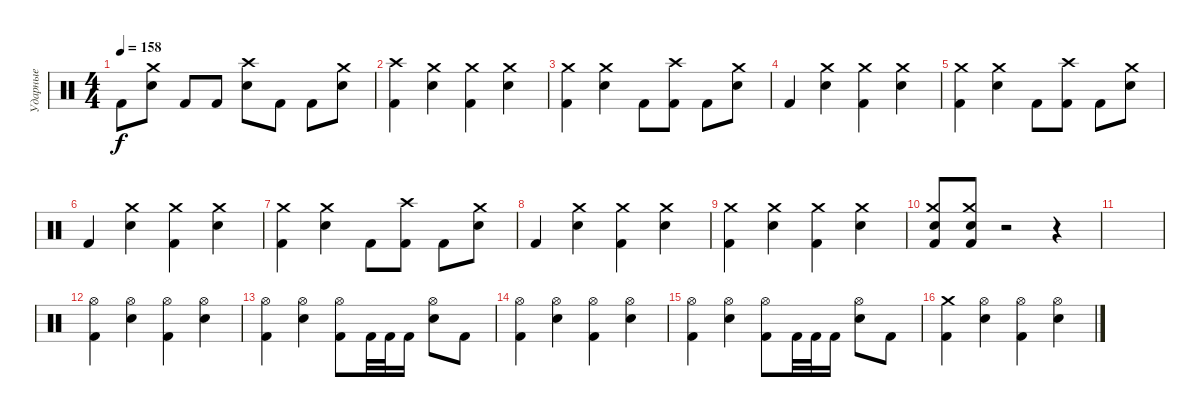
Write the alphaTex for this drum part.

\track ("Ударные" "Ударные") {instrument percussion}
\staff {score}
\articulation defaults
\ts (4 4)
\tempo 158
\clef neutral
\ks c "Kick (hit) 2".8{dy f}
("Crash medium (hit)" "Snare (hit) 2").8 "Kick (hit) 2".8 "Kick (hit) 2".8 ("Crash high (hit)" "Snare (hit) 2").8 "Kick (hit) 2".8 "Kick (hit) 2".8 ("Crash medium (hit)" "Snare (hit) 2").8 |
("Crash high (hit)" "Kick (hit) 2").4 ("Crash medium (hit)" "Snare (hit) 2").4 ("Crash medium (hit)" "Kick (hit) 2").4 ("Crash medium (hit)" "Snare (hit) 2").4 |
("Crash medium (hit)" "Kick (hit) 2").4 ("Crash medium (hit)" "Snare (hit) 2").4 "Kick (hit) 2".8 ("Crash high (hit)" "Kick (hit) 2").8 "Kick (hit) 2".8 ("Crash medium (hit)" "Snare (hit) 2").8 |
"Kick (hit) 2".4 ("Crash medium (hit)" "Snare (hit) 2").4 ("Crash medium (hit)" "Kick (hit) 2").4 ("Crash medium (hit)" "Snare (hit) 2").4 |
("Crash medium (hit)" "Kick (hit) 2").4 ("Crash medium (hit)" "Snare (hit) 2").4 "Kick (hit) 2".8 ("Crash high (hit)" "Kick (hit) 2").8 "Kick (hit) 2".8 ("Crash medium (hit)" "Snare (hit) 2").8 |
"Kick (hit) 2".4 ("Crash medium (hit)" "Snare (hit) 2").4 ("Crash medium (hit)" "Kick (hit) 2").4 ("Crash medium (hit)" "Snare (hit) 2").4 |
("Crash medium (hit)" "Kick (hit) 2").4 ("Crash medium (hit)" "Snare (hit) 2").4 "Kick (hit) 2".8 ("Crash high (hit)" "Kick (hit) 2").8 "Kick (hit) 2".8 ("Crash medium (hit)" "Snare (hit) 2").8 |
"Kick (hit) 2".4 ("Crash medium (hit)" "Snare (hit) 2").4 ("Crash medium (hit)" "Kick (hit) 2").4 ("Crash medium (hit)" "Snare (hit) 2").4 |
("Crash medium (hit)" "Kick (hit) 2").4 ("Crash medium (hit)" "Snare (hit) 2").4 ("Crash medium (hit)" "Kick (hit) 2").4 ("Crash medium (hit)" "Snare (hit) 2").4 |
("Crash medium (hit)" "Snare (hit) 2" "Kick (hit) 2").8 ("Crash medium (hit)" "Snare (hit) 2" "Kick (hit) 2").8 r.2 r.4 |
|
("Hi-Hat (open)" "Kick (hit) 2").4 ("Hi-Hat (open)" "Snare (hit) 2").4 ("Hi-Hat (open)" "Kick (hit) 2").4 ("Hi-Hat (open)" "Snare (hit) 2").4 |
("Hi-Hat (open)" "Kick (hit) 2").4 ("Hi-Hat (open)" "Snare (hit) 2").4 ("Hi-Hat (open)" "Kick (hit) 2").8 "Kick (hit) 2".32 "Kick (hit) 2".32 "Kick (hit) 2".16 ("Hi-Hat (open)" "Snare (hit) 2").8 "Kick (hit) 2".8 |
("Hi-Hat (open)" "Kick (hit) 2").4 ("Hi-Hat (open)" "Snare (hit) 2").4 ("Hi-Hat (open)" "Kick (hit) 2").4 ("Hi-Hat (open)" "Snare (hit) 2").4 |
("Hi-Hat (open)" "Kick (hit) 2").4 ("Hi-Hat (open)" "Snare (hit) 2").4 ("Hi-Hat (open)" "Kick (hit) 2").8 "Kick (hit) 2".32 "Kick (hit) 2".32 "Kick (hit) 2".16 ("Hi-Hat (open)" "Snare (hit) 2").8 "Kick (hit) 2".8 |
("Crash medium (hit)" "Kick (hit) 2").4 ("Hi-Hat (open)" "Snare (hit) 2").4 ("Hi-Hat (open)" "Kick (hit) 2").4 ("Hi-Hat (open)" "Snare (hit) 2").4
